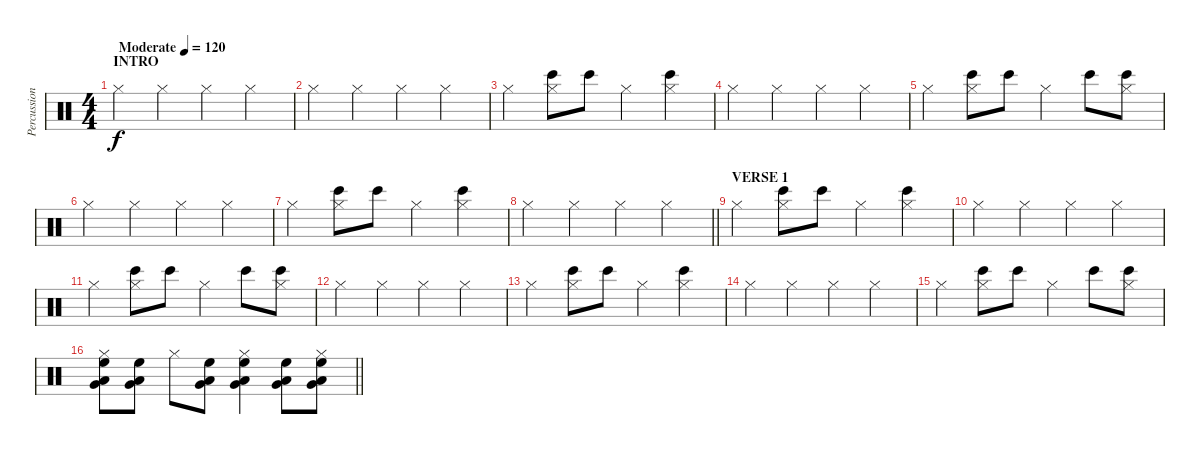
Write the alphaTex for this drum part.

\track ("Percussion" "Percussion") {instrument percussion}
\staff {score}
\articulation defaults
\ts (4 4)
\section ("" "INTRO")
\tempo (120 "Moderate")
\clef neutral
\ks c "Hi-Hat (closed)".4{dy f} "Hi-Hat (closed)".4 "Hi-Hat (closed)".4 "Hi-Hat (closed)".4
|
"Hi-Hat (closed)".4 "Hi-Hat (closed)".4 "Hi-Hat (closed)".4 "Hi-Hat (closed)".4 |
"Hi-Hat (closed)".4 ("Hi-Hat (closed)" "Bongo High (hit)").8 "Bongo High (hit)".8 "Hi-Hat (closed)".4 ("Hi-Hat (closed)" "Bongo High (hit)").4 |
"Hi-Hat (closed)".4 "Hi-Hat (closed)".4 "Hi-Hat (closed)".4 "Hi-Hat (closed)".4 |
"Hi-Hat (closed)".4 ("Hi-Hat (closed)" "Bongo High (hit)").8 "Bongo High (hit)".8 "Hi-Hat (closed)".4 "Bongo High (hit)".8 ("Hi-Hat (closed)" "Bongo High (hit)").8 |
"Hi-Hat (closed)".4 "Hi-Hat (closed)".4 "Hi-Hat (closed)".4 "Hi-Hat (closed)".4 |
"Hi-Hat (closed)".4 ("Hi-Hat (closed)" "Bongo High (hit)").8 "Bongo High (hit)".8 "Hi-Hat (closed)".4 ("Hi-Hat (closed)" "Bongo High (hit)").4 |
\barLineRight lightlight "Hi-Hat (closed)".4 "Hi-Hat (closed)".4 "Hi-Hat (closed)".4 "Hi-Hat (closed)".4
|
\section ("" "VERSE 1")
"Hi-Hat (closed)".4 ("Hi-Hat (closed)" "Bongo High (hit)").8 "Bongo High (hit)".8 "Hi-Hat (closed)".4 ("Hi-Hat (closed)" "Bongo High (hit)").4 |
"Hi-Hat (closed)".4 "Hi-Hat (closed)".4 "Hi-Hat (closed)".4 "Hi-Hat (closed)".4 |
"Hi-Hat (closed)".4 ("Hi-Hat (closed)" "Bongo High (hit)").8 "Bongo High (hit)".8 "Hi-Hat (closed)".4 "Bongo High (hit)".8 ("Hi-Hat (closed)" "Bongo High (hit)").8 |
"Hi-Hat (closed)".4 "Hi-Hat (closed)".4 "Hi-Hat (closed)".4 "Hi-Hat (closed)".4 |
"Hi-Hat (closed)".4 ("Hi-Hat (closed)" "Bongo High (hit)").8 "Bongo High (hit)".8 "Hi-Hat (closed)".4 ("Hi-Hat (closed)" "Bongo High (hit)").4 |
"Hi-Hat (closed)".4 "Hi-Hat (closed)".4 "Hi-Hat (closed)".4 "Hi-Hat (closed)".4 |
"Hi-Hat (closed)".4 ("Hi-Hat (closed)" "Bongo High (hit)").8 "Bongo High (hit)".8 "Hi-Hat (closed)".4 "Bongo High (hit)".8 ("Hi-Hat (closed)" "Bongo High (hit)").8 |
\barLineRight lightlight
("Hi-Hat (closed)" "Low Tom (hit)" "High Floor Tom (hit)" "Very Low Tom (hit)").8 ("Low Tom (hit)" "High Floor Tom (hit)" "Very Low Tom (hit)").8 "Hi-Hat (closed)".8 ("Low Tom (hit)" "High Floor Tom (hit)" "Very Low Tom (hit)").8 ("Hi-Hat (closed)" "Low Tom (hit)" "High Floor Tom (hit)" "Very Low Tom (hit)").4 ("Low Tom (hit)" "High Floor Tom (hit)" "Very Low Tom (hit)").8 ("Hi-Hat (closed)" "Low Tom (hit)" "High Floor Tom (hit)" "Very Low Tom (hit)").8
